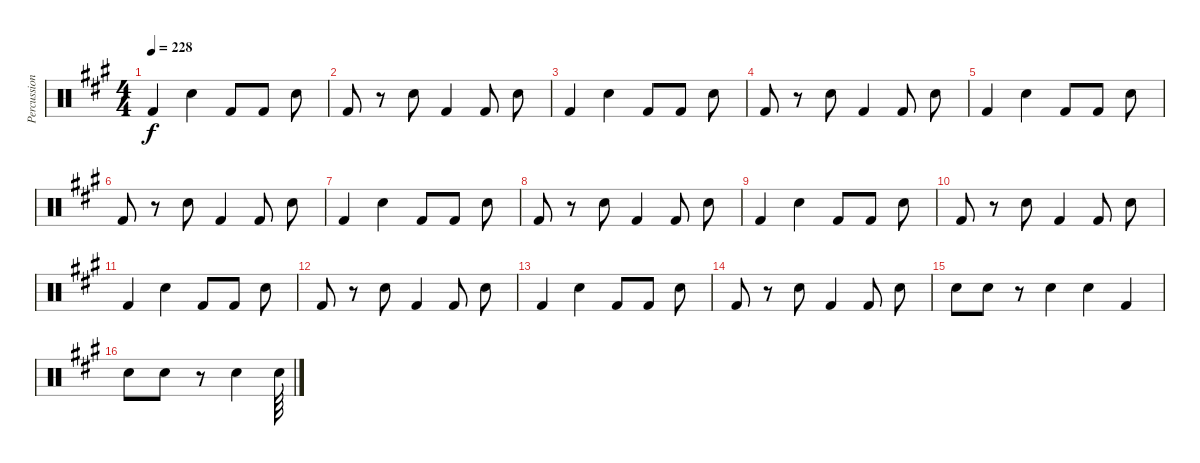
\track ("Percussion" "Percussion") {instrument percussion}
\staff {score}
\articulation defaults
\ts (4 4)
\tempo 228
\clef neutral
\ks a "Kick (hit) 2".4{dy f} "Snare (hit) 2".4 "Kick (hit) 2".8 "Kick (hit) 2".8 "Snare (hit) 2".8
|
"Kick (hit) 2".8 r.8 "Snare (hit) 2".8 "Kick (hit) 2".4 "Kick (hit) 2".8 "Snare (hit) 2".8 |
"Kick (hit) 2".4 "Snare (hit) 2".4 "Kick (hit) 2".8 "Kick (hit) 2".8 "Snare (hit) 2".8 |
"Kick (hit) 2".8 r.8 "Snare (hit) 2".8 "Kick (hit) 2".4 "Kick (hit) 2".8 "Snare (hit) 2".8 |
"Kick (hit) 2".4 "Snare (hit) 2".4 "Kick (hit) 2".8 "Kick (hit) 2".8 "Snare (hit) 2".8 |
"Kick (hit) 2".8 r.8 "Snare (hit) 2".8 "Kick (hit) 2".4 "Kick (hit) 2".8 "Snare (hit) 2".8 |
"Kick (hit) 2".4 "Snare (hit) 2".4 "Kick (hit) 2".8 "Kick (hit) 2".8 "Snare (hit) 2".8 |
"Kick (hit) 2".8 r.8 "Snare (hit) 2".8 "Kick (hit) 2".4 "Kick (hit) 2".8 "Snare (hit) 2".8 |
"Kick (hit) 2".4 "Snare (hit) 2".4 "Kick (hit) 2".8 "Kick (hit) 2".8 "Snare (hit) 2".8 |
"Kick (hit) 2".8 r.8 "Snare (hit) 2".8 "Kick (hit) 2".4 "Kick (hit) 2".8 "Snare (hit) 2".8 |
"Kick (hit) 2".4 "Snare (hit) 2".4 "Kick (hit) 2".8 "Kick (hit) 2".8 "Snare (hit) 2".8 |
"Kick (hit) 2".8 r.8 "Snare (hit) 2".8 "Kick (hit) 2".4 "Kick (hit) 2".8 "Snare (hit) 2".8 |
"Kick (hit) 2".4 "Snare (hit) 2".4 "Kick (hit) 2".8 "Kick (hit) 2".8 "Snare (hit) 2".8 |
"Kick (hit) 2".8 r.8 "Snare (hit) 2".8 "Kick (hit) 2".4 "Kick (hit) 2".8 "Snare (hit) 2".8 |
"Snare (hit) 2".8 "Snare (hit) 2".8 r.8 "Snare (hit) 2".4 "Snare (hit) 2".4 "Kick (hit) 2".4 |
"Snare (hit) 2".8 "Snare (hit) 2".8 r.8 "Snare (hit) 2".4 "Snare (hit) 2".64
